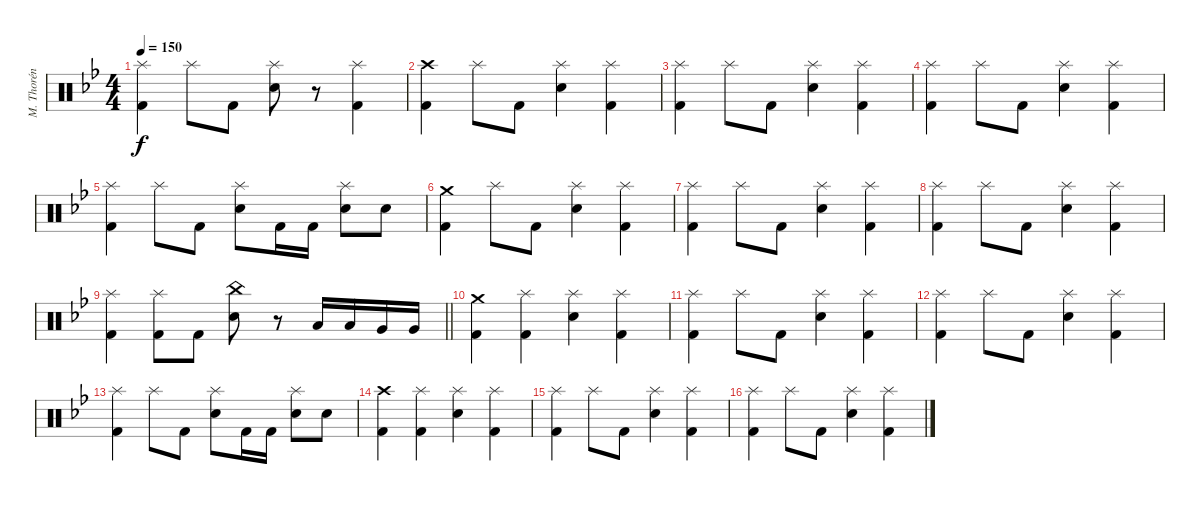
\track ("M. Thorén (Drums)" "M. Thorén ") {instrument percussion}
\staff {score}
\articulation defaults
\ts (4 4)
\tempo 150
\clef neutral
\ks gminor
("Splash (hit)" "Kick (hit) 2").4{dy f} "Splash (hit)".8 "Kick (hit) 2".8 ("Splash (hit)" "Electric Snare (hit)").8 r.8 ("Splash (hit)" "Kick (hit) 2").4 |
("Crash high (hit)" "Kick (hit) 2").4 "Splash (hit)".8 "Kick (hit) 2".8 ("Splash (hit)" "Electric Snare (hit)").4 ("Splash (hit)" "Kick (hit) 2").4 |
("Splash (hit)" "Kick (hit) 2").4 "Splash (hit)".8 "Kick (hit) 2".8 ("Splash (hit)" "Electric Snare (hit)").4 ("Splash (hit)" "Kick (hit) 2").4 |
("Splash (hit)" "Kick (hit) 2").4 "Splash (hit)".8 "Kick (hit) 2".8 ("Splash (hit)" "Electric Snare (hit)").4 ("Splash (hit)" "Kick (hit) 2").4 |
("Splash (hit)" "Kick (hit) 2").4 "Splash (hit)".8 "Kick (hit) 2".8 ("Splash (hit)" "Electric Snare (hit)").8 "Kick (hit) 2".16 "Kick (hit) 2".16 ("Splash (hit)" "Electric Snare (hit)").8 "Electric Snare (hit)".8 |
("Crash medium (hit)" "Kick (hit) 2").4 "Splash (hit)".8 "Kick (hit) 2".8 ("Splash (hit)" "Electric Snare (hit)").4 ("Splash (hit)" "Kick (hit) 2").4 |
("Splash (hit)" "Kick (hit) 2").4 "Splash (hit)".8 "Kick (hit) 2".8 ("Splash (hit)" "Electric Snare (hit)").4 ("Splash (hit)" "Kick (hit) 2").4 |
("Splash (hit)" "Kick (hit) 2").4 "Splash (hit)".8 "Kick (hit) 2".8 ("Splash (hit)" "Electric Snare (hit)").4 ("Splash (hit)" "Kick (hit) 2").4 |
\barLineRight lightlight
("Splash (hit)" "Kick (hit) 2").4 ("Splash (hit)" "Kick (hit) 2").8 "Kick (hit) 2".8 ("China (hit)" "Electric Snare (hit)").8 r.8 "Low Tom (hit)".16 "Low Tom (hit)".16 "Very Low Tom (hit)".16 "Very Low Tom (hit)".16 |
("Crash medium (hit)" "Kick (hit) 2").4 ("Splash (hit)" "Kick (hit) 2").4 ("Splash (hit)" "Electric Snare (hit)").4 ("Splash (hit)" "Kick (hit) 2").4 |
("Splash (hit)" "Kick (hit) 2").4 "Splash (hit)".8 "Kick (hit) 2".8 ("Splash (hit)" "Electric Snare (hit)").4 ("Splash (hit)" "Kick (hit) 2").4 |
("Splash (hit)" "Kick (hit) 2").4 "Splash (hit)".8 "Kick (hit) 2".8 ("Splash (hit)" "Electric Snare (hit)").4 ("Splash (hit)" "Kick (hit) 2").4 |
("Splash (hit)" "Kick (hit) 2").4 "Splash (hit)".8 "Kick (hit) 2".8 ("Splash (hit)" "Electric Snare (hit)").8 "Kick (hit) 2".16 "Kick (hit) 2".16 ("Splash (hit)" "Electric Snare (hit)").8 "Electric Snare (hit)".8 |
("Crash high (hit)" "Kick (hit) 2").4 ("Splash (hit)" "Kick (hit) 2").4 ("Splash (hit)" "Electric Snare (hit)").4 ("Splash (hit)" "Kick (hit) 2").4 |
("Splash (hit)" "Kick (hit) 2").4 "Splash (hit)".8 "Kick (hit) 2".8 ("Splash (hit)" "Electric Snare (hit)").4 ("Splash (hit)" "Kick (hit) 2").4 |
("Splash (hit)" "Kick (hit) 2").4 "Splash (hit)".8 "Kick (hit) 2".8 ("Splash (hit)" "Electric Snare (hit)").4 ("Splash (hit)" "Kick (hit) 2").4
